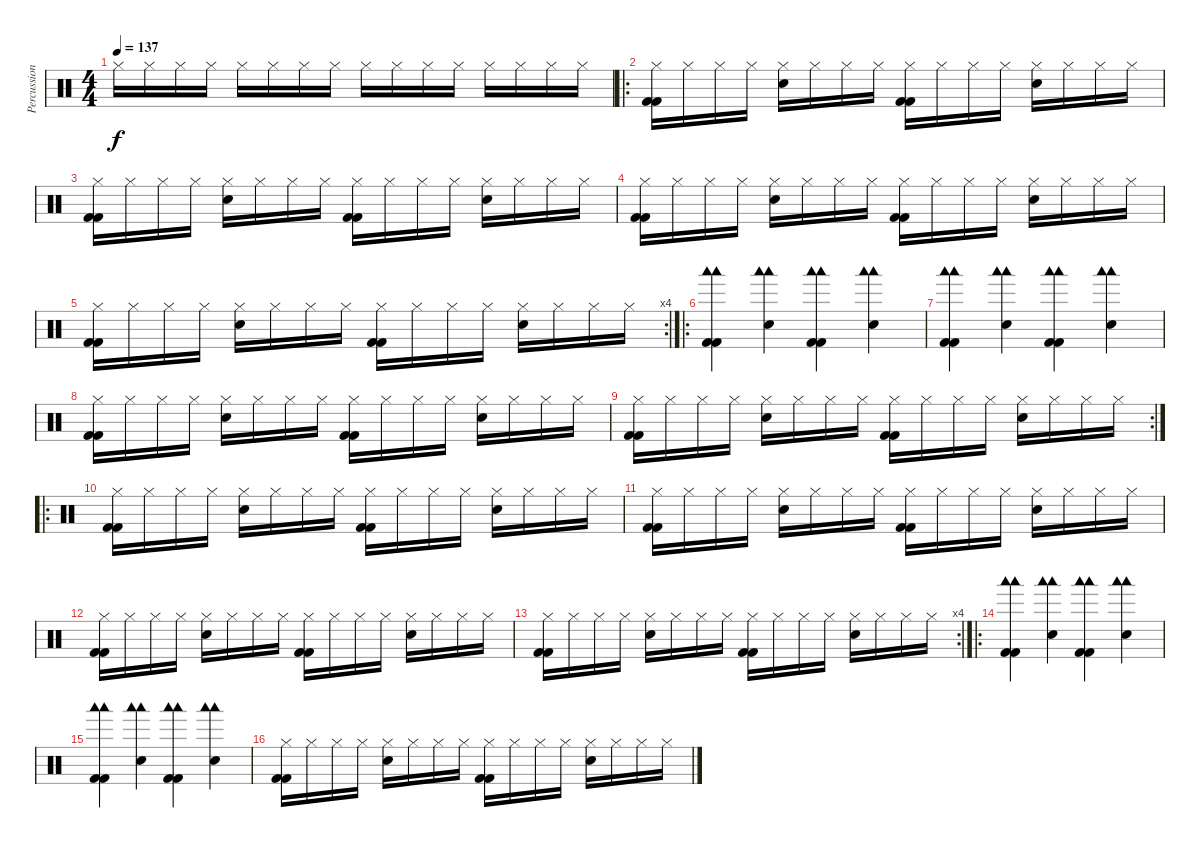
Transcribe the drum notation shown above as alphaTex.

\track ("Percussions" "Percussion") {instrument percussion}
\staff {score}
\articulation defaults
\ts (4 4)
\tempo 137
\clef neutral
\ks c "Hi-Hat (closed)".16{dy f} "Hi-Hat (closed)".16 "Hi-Hat (closed)".16 "Hi-Hat (closed)".16 "Hi-Hat (closed)".16 "Hi-Hat (closed)".16 "Hi-Hat (closed)".16 "Hi-Hat (closed)".16 "Hi-Hat (closed)".16 "Hi-Hat (closed)".16 "Hi-Hat (closed)".16 "Hi-Hat (closed)".16 "Hi-Hat (closed)".16 "Hi-Hat (closed)".16 "Hi-Hat (closed)".16 "Hi-Hat (closed)".16
|
\ro
("Kick (hit) 2" "Kick (hit) 2" "Hi-Hat (closed)").16 "Hi-Hat (closed)".16 "Hi-Hat (closed)".16 "Hi-Hat (closed)".16 ("Snare (hit) 2" "Hi-Hat (closed)").16 "Hi-Hat (closed)".16 "Hi-Hat (closed)".16 "Hi-Hat (closed)".16 ("Kick (hit) 2" "Kick (hit) 2" "Hi-Hat (closed)").16 "Hi-Hat (closed)".16 "Hi-Hat (closed)".16 "Hi-Hat (closed)".16 ("Snare (hit) 2" "Hi-Hat (closed)").16 "Hi-Hat (closed)".16 "Hi-Hat (closed)".16 "Hi-Hat (closed)".16 |
("Kick (hit) 2" "Kick (hit) 2" "Hi-Hat (closed)").16 "Hi-Hat (closed)".16 "Hi-Hat (closed)".16 "Hi-Hat (closed)".16 ("Snare (hit) 2" "Hi-Hat (closed)").16 "Hi-Hat (closed)".16 "Hi-Hat (closed)".16 "Hi-Hat (closed)".16 ("Kick (hit) 2" "Kick (hit) 2" "Hi-Hat (closed)").16 "Hi-Hat (closed)".16 "Hi-Hat (closed)".16 "Hi-Hat (closed)".16 ("Snare (hit) 2" "Hi-Hat (closed)").16 "Hi-Hat (closed)".16 "Hi-Hat (closed)".16 "Hi-Hat (closed)".16 |
("Kick (hit) 2" "Kick (hit) 2" "Hi-Hat (closed)").16 "Hi-Hat (closed)".16 "Hi-Hat (closed)".16 "Hi-Hat (closed)".16 ("Snare (hit) 2" "Hi-Hat (closed)").16 "Hi-Hat (closed)".16 "Hi-Hat (closed)".16 "Hi-Hat (closed)".16 ("Kick (hit) 2" "Kick (hit) 2" "Hi-Hat (closed)").16 "Hi-Hat (closed)".16 "Hi-Hat (closed)".16 "Hi-Hat (closed)".16 ("Snare (hit) 2" "Hi-Hat (closed)").16 "Hi-Hat (closed)".16 "Hi-Hat (closed)".16 "Hi-Hat (closed)".16 |
\rc 4
("Kick (hit) 2" "Kick (hit) 2" "Hi-Hat (closed)").16 "Hi-Hat (closed)".16 "Hi-Hat (closed)".16 "Hi-Hat (closed)".16 ("Snare (hit) 2" "Hi-Hat (closed)").16 "Hi-Hat (closed)".16 "Hi-Hat (closed)".16 "Hi-Hat (closed)".16 ("Kick (hit) 2" "Kick (hit) 2" "Hi-Hat (closed)").16 "Hi-Hat (closed)".16 "Hi-Hat (closed)".16 "Hi-Hat (closed)".16 ("Snare (hit) 2" "Hi-Hat (closed)").16 "Hi-Hat (closed)".16 "Hi-Hat (closed)".16 "Hi-Hat (closed)".16 |
\ro
("Woodblock low (hit)" "Woodblock low (hit)" "Kick (hit) 2" "Kick (hit) 2").4 ("Woodblock low (hit)" "Woodblock low (hit)" "Snare (hit) 2").4 ("Woodblock low (hit)" "Woodblock low (hit)" "Kick (hit) 2" "Kick (hit) 2").4 ("Woodblock low (hit)" "Woodblock low (hit)" "Snare (hit) 2").4 |
("Woodblock low (hit)" "Woodblock low (hit)" "Kick (hit) 2" "Kick (hit) 2").4 ("Woodblock low (hit)" "Woodblock low (hit)" "Snare (hit) 2").4 ("Woodblock low (hit)" "Woodblock low (hit)" "Kick (hit) 2" "Kick (hit) 2").4 ("Woodblock low (hit)" "Woodblock low (hit)" "Snare (hit) 2").4 |
("Kick (hit) 2" "Kick (hit) 2" "Hi-Hat (closed)").16 "Hi-Hat (closed)".16 "Hi-Hat (closed)".16 "Hi-Hat (closed)".16 ("Snare (hit) 2" "Hi-Hat (closed)").16 "Hi-Hat (closed)".16 "Hi-Hat (closed)".16 "Hi-Hat (closed)".16 ("Kick (hit) 2" "Kick (hit) 2" "Hi-Hat (closed)").16 "Hi-Hat (closed)".16 "Hi-Hat (closed)".16 "Hi-Hat (closed)".16 ("Snare (hit) 2" "Hi-Hat (closed)").16 "Hi-Hat (closed)".16 "Hi-Hat (closed)".16 "Hi-Hat (closed)".16 |
\rc 2
("Kick (hit) 2" "Kick (hit) 2" "Hi-Hat (closed)").16 "Hi-Hat (closed)".16 "Hi-Hat (closed)".16 "Hi-Hat (closed)".16 ("Snare (hit) 2" "Hi-Hat (closed)").16 "Hi-Hat (closed)".16 "Hi-Hat (closed)".16 "Hi-Hat (closed)".16 ("Kick (hit) 2" "Kick (hit) 2" "Hi-Hat (closed)").16 "Hi-Hat (closed)".16 "Hi-Hat (closed)".16 "Hi-Hat (closed)".16 ("Snare (hit) 2" "Hi-Hat (closed)").16 "Hi-Hat (closed)".16 "Hi-Hat (closed)".16 "Hi-Hat (closed)".16 |
\ro
("Kick (hit) 2" "Kick (hit) 2" "Hi-Hat (closed)").16 "Hi-Hat (closed)".16 "Hi-Hat (closed)".16 "Hi-Hat (closed)".16 ("Snare (hit) 2" "Hi-Hat (closed)").16 "Hi-Hat (closed)".16 "Hi-Hat (closed)".16 "Hi-Hat (closed)".16 ("Kick (hit) 2" "Kick (hit) 2" "Hi-Hat (closed)").16 "Hi-Hat (closed)".16 "Hi-Hat (closed)".16 "Hi-Hat (closed)".16 ("Snare (hit) 2" "Hi-Hat (closed)").16 "Hi-Hat (closed)".16 "Hi-Hat (closed)".16 "Hi-Hat (closed)".16 |
("Kick (hit) 2" "Kick (hit) 2" "Hi-Hat (closed)").16 "Hi-Hat (closed)".16 "Hi-Hat (closed)".16 "Hi-Hat (closed)".16 ("Snare (hit) 2" "Hi-Hat (closed)").16 "Hi-Hat (closed)".16 "Hi-Hat (closed)".16 "Hi-Hat (closed)".16 ("Kick (hit) 2" "Kick (hit) 2" "Hi-Hat (closed)").16 "Hi-Hat (closed)".16 "Hi-Hat (closed)".16 "Hi-Hat (closed)".16 ("Snare (hit) 2" "Hi-Hat (closed)").16 "Hi-Hat (closed)".16 "Hi-Hat (closed)".16 "Hi-Hat (closed)".16 |
("Kick (hit) 2" "Kick (hit) 2" "Hi-Hat (closed)").16 "Hi-Hat (closed)".16 "Hi-Hat (closed)".16 "Hi-Hat (closed)".16 ("Snare (hit) 2" "Hi-Hat (closed)").16 "Hi-Hat (closed)".16 "Hi-Hat (closed)".16 "Hi-Hat (closed)".16 ("Kick (hit) 2" "Kick (hit) 2" "Hi-Hat (closed)").16 "Hi-Hat (closed)".16 "Hi-Hat (closed)".16 "Hi-Hat (closed)".16 ("Snare (hit) 2" "Hi-Hat (closed)").16 "Hi-Hat (closed)".16 "Hi-Hat (closed)".16 "Hi-Hat (closed)".16 |
\rc 4
("Kick (hit) 2" "Kick (hit) 2" "Hi-Hat (closed)").16 "Hi-Hat (closed)".16 "Hi-Hat (closed)".16 "Hi-Hat (closed)".16 ("Snare (hit) 2" "Hi-Hat (closed)").16 "Hi-Hat (closed)".16 "Hi-Hat (closed)".16 "Hi-Hat (closed)".16 ("Kick (hit) 2" "Kick (hit) 2" "Hi-Hat (closed)").16 "Hi-Hat (closed)".16 "Hi-Hat (closed)".16 "Hi-Hat (closed)".16 ("Snare (hit) 2" "Hi-Hat (closed)").16 "Hi-Hat (closed)".16 "Hi-Hat (closed)".16 "Hi-Hat (closed)".16 |
\ro
("Woodblock low (hit)" "Woodblock low (hit)" "Kick (hit) 2" "Kick (hit) 2").4 ("Woodblock low (hit)" "Woodblock low (hit)" "Snare (hit) 2").4 ("Woodblock low (hit)" "Woodblock low (hit)" "Kick (hit) 2" "Kick (hit) 2").4 ("Woodblock low (hit)" "Woodblock low (hit)" "Snare (hit) 2").4 |
("Woodblock low (hit)" "Woodblock low (hit)" "Kick (hit) 2" "Kick (hit) 2").4 ("Woodblock low (hit)" "Woodblock low (hit)" "Snare (hit) 2").4 ("Woodblock low (hit)" "Woodblock low (hit)" "Kick (hit) 2" "Kick (hit) 2").4 ("Woodblock low (hit)" "Woodblock low (hit)" "Snare (hit) 2").4 |
("Kick (hit) 2" "Kick (hit) 2" "Hi-Hat (closed)").16 "Hi-Hat (closed)".16 "Hi-Hat (closed)".16 "Hi-Hat (closed)".16 ("Snare (hit) 2" "Hi-Hat (closed)").16 "Hi-Hat (closed)".16 "Hi-Hat (closed)".16 "Hi-Hat (closed)".16 ("Kick (hit) 2" "Kick (hit) 2" "Hi-Hat (closed)").16 "Hi-Hat (closed)".16 "Hi-Hat (closed)".16 "Hi-Hat (closed)".16 ("Snare (hit) 2" "Hi-Hat (closed)").16 "Hi-Hat (closed)".16 "Hi-Hat (closed)".16 "Hi-Hat (closed)".16
